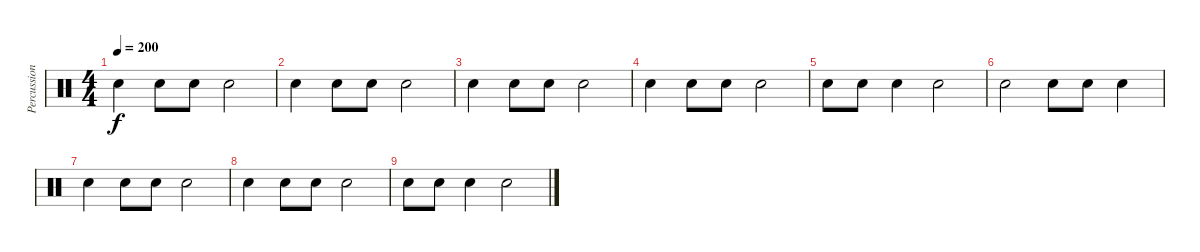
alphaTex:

\track ("Percussion" "Percussion") {instrument percussion}
\staff {score}
\articulation defaults
\ts (4 4)
\tempo 200
\clef neutral
\ks c "Electric Snare (hit)".4{dy f} "Electric Snare (hit)".8 "Electric Snare (hit)".8 "Hand Clap (hit)".2
|
"Electric Snare (hit)".4 "Electric Snare (hit)".8 "Electric Snare (hit)".8 "Hand Clap (hit)".2 |
"Electric Snare (hit)".4 "Electric Snare (hit)".8 "Electric Snare (hit)".8 "Hand Clap (hit)".2 |
"Electric Snare (hit)".4 "Electric Snare (hit)".8 "Electric Snare (hit)".8 "Hand Clap (hit)".2 |
"Electric Snare (hit)".8 "Electric Snare (hit)".8 "Electric Snare (hit)".4 "Hand Clap (hit)".2 |
"Electric Snare (hit)".2 "Electric Snare (hit)".8 "Electric Snare (hit)".8 "Hand Clap (hit)".4 |
"Electric Snare (hit)".4 "Electric Snare (hit)".8 "Electric Snare (hit)".8 "Hand Clap (hit)".2 |
"Electric Snare (hit)".4 "Electric Snare (hit)".8 "Electric Snare (hit)".8 "Hand Clap (hit)".2 |
"Electric Snare (hit)".8 "Electric Snare (hit)".8 "Electric Snare (hit)".4 "Hand Clap (hit)".2
